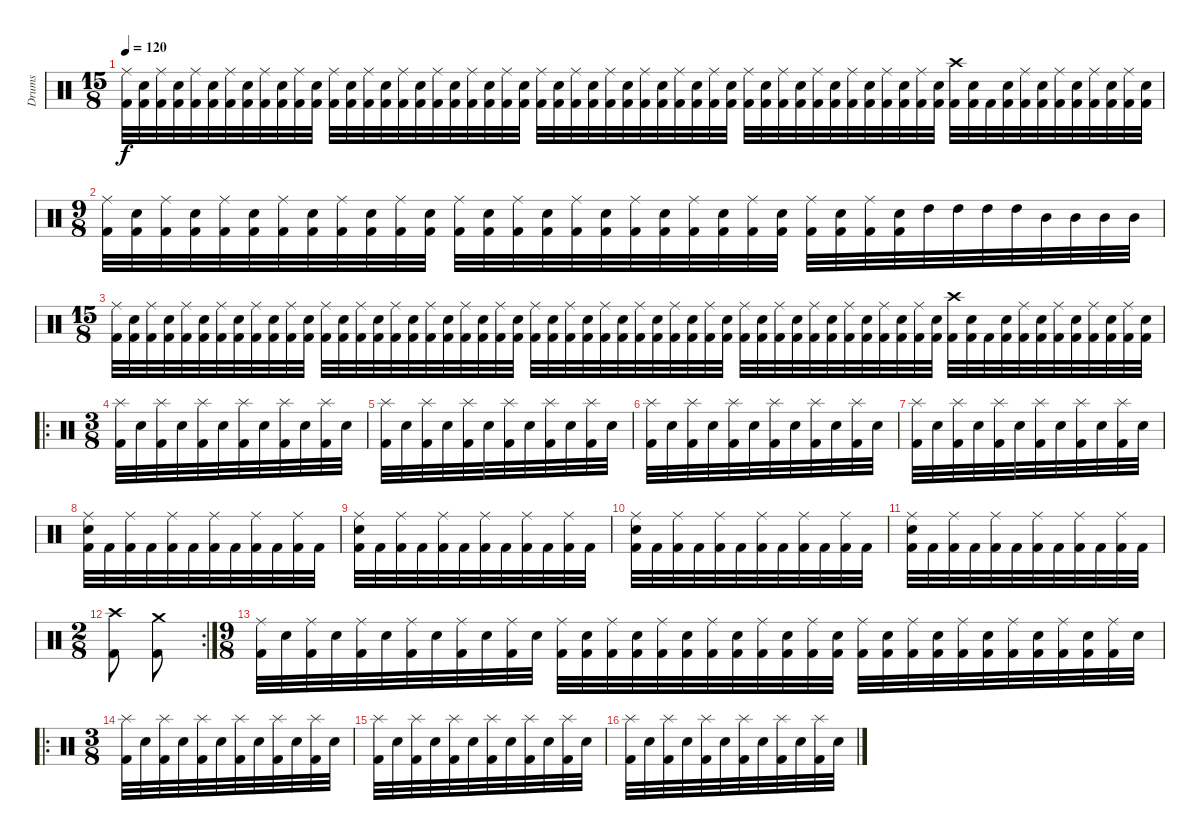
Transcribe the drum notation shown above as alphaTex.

\track ("Drums" "Drums") {instrument percussion}
\staff {score}
\articulation defaults
\ts (15 8)
\tempo 120
\clef neutral
\ks c
("Ride (middle)" "Kick (hit) 2").32{dy f} ("Snare (hit) 2" "Kick (hit) 2").32 ("Ride (middle)" "Kick (hit) 2").32 ("Snare (hit) 2" "Kick (hit) 2").32 ("Ride (middle)" "Kick (hit) 2").32 ("Snare (hit) 2" "Kick (hit) 2").32 ("Ride (middle)" "Kick (hit) 2").32 ("Snare (hit) 2" "Kick (hit) 2").32 ("Ride (middle)" "Kick (hit) 2").32 ("Snare (hit) 2" "Kick (hit) 2").32 ("Ride (middle)" "Kick (hit) 2").32 ("Snare (hit) 2" "Kick (hit) 2").32 ("Ride (middle)" "Kick (hit) 2").32 ("Snare (hit) 2" "Kick (hit) 2").32 ("Ride (middle)" "Kick (hit) 2").32 ("Snare (hit) 2" "Kick (hit) 2").32 ("Ride (middle)" "Kick (hit) 2").32 ("Snare (hit) 2" "Kick (hit) 2").32 ("Ride (middle)" "Kick (hit) 2").32 ("Snare (hit) 2" "Kick (hit) 2").32 ("Ride (middle)" "Kick (hit) 2").32 ("Snare (hit) 2" "Kick (hit) 2").32 ("Ride (middle)" "Kick (hit) 2").32 ("Snare (hit) 2" "Kick (hit) 2").32 ("Ride (middle)" "Kick (hit) 2").32 ("Snare (hit) 2" "Kick (hit) 2").32 ("Ride (middle)" "Kick (hit) 2").32 ("Snare (hit) 2" "Kick (hit) 2").32 ("Ride (middle)" "Kick (hit) 2").32 ("Snare (hit) 2" "Kick (hit) 2").32 ("Ride (middle)" "Kick (hit) 2").32 ("Snare (hit) 2" "Kick (hit) 2").32 ("Ride (middle)" "Kick (hit) 2").32 ("Snare (hit) 2" "Kick (hit) 2").32 ("Ride (middle)" "Kick (hit) 2").32 ("Snare (hit) 2" "Kick (hit) 2").32 ("Ride (middle)" "Kick (hit) 2").32 ("Snare (hit) 2" "Kick (hit) 2").32 ("Ride (middle)" "Kick (hit) 2").32 ("Snare (hit) 2" "Kick (hit) 2").32 ("Ride (middle)" "Kick (hit) 2").32 ("Snare (hit) 2" "Kick (hit) 2").32 ("Ride (middle)" "Kick (hit) 2").32 ("Snare (hit) 2" "Kick (hit) 2").32 ("Ride (middle)" "Kick (hit) 2").32 ("Snare (hit) 2" "Kick (hit) 2").32 ("Ride (middle)" "Kick (hit) 2").32 ("Snare (hit) 2" "Kick (hit) 2").32 ("Crash high (hit)" "Kick (hit) 2").32 ("Snare (hit) 2" "Kick (hit) 2").32 "Kick (hit) 2".32 ("Snare (hit) 2" "Kick (hit) 2").32 ("Ride (middle)" "Kick (hit) 2").32 ("Snare (hit) 2" "Kick (hit) 2").32 ("Ride (middle)" "Kick (hit) 2").32 ("Snare (hit) 2" "Kick (hit) 2").32 ("Ride (middle)" "Kick (hit) 2").32 ("Snare (hit) 2" "Kick (hit) 2").32 ("Ride (middle)" "Kick (hit) 2").32 ("Snare (hit) 2" "Kick (hit) 2").32 |
\ts (9 8)
("Ride (middle)" "Kick (hit) 2").32 ("Snare (hit) 2" "Kick (hit) 2").32 ("Ride (middle)" "Kick (hit) 2").32 ("Snare (hit) 2" "Kick (hit) 2").32 ("Ride (middle)" "Kick (hit) 2").32 ("Snare (hit) 2" "Kick (hit) 2").32 ("Ride (middle)" "Kick (hit) 2").32 ("Snare (hit) 2" "Kick (hit) 2").32 ("Ride (middle)" "Kick (hit) 2").32 ("Snare (hit) 2" "Kick (hit) 2").32 ("Ride (middle)" "Kick (hit) 2").32 ("Snare (hit) 2" "Kick (hit) 2").32 ("Ride (middle)" "Kick (hit) 2").32 ("Snare (hit) 2" "Kick (hit) 2").32 ("Ride (middle)" "Kick (hit) 2").32 ("Snare (hit) 2" "Kick (hit) 2").32 ("Ride (middle)" "Kick (hit) 2").32 ("Snare (hit) 2" "Kick (hit) 2").32 ("Ride (middle)" "Kick (hit) 2").32 ("Snare (hit) 2" "Kick (hit) 2").32 ("Ride (middle)" "Kick (hit) 2").32 ("Snare (hit) 2" "Kick (hit) 2").32 ("Ride (middle)" "Kick (hit) 2").32 ("Snare (hit) 2" "Kick (hit) 2").32 ("Ride (middle)" "Kick (hit) 2").32 ("Snare (hit) 2" "Kick (hit) 2").32 ("Ride (middle)" "Kick (hit) 2").32 ("Snare (hit) 2" "Kick (hit) 2").32 "High Tom (hit)".32 "High Tom (hit)".32 "High Tom (hit)".32 "High Tom (hit)".32 "Mid Tom (hit)".32 "Mid Tom (hit)".32 "Mid Tom (hit)".32 "Mid Tom (hit)".32 |
\ts (15 8)
("Ride (middle)" "Kick (hit) 2").32 ("Snare (hit) 2" "Kick (hit) 2").32 ("Ride (middle)" "Kick (hit) 2").32 ("Snare (hit) 2" "Kick (hit) 2").32 ("Ride (middle)" "Kick (hit) 2").32 ("Snare (hit) 2" "Kick (hit) 2").32 ("Ride (middle)" "Kick (hit) 2").32 ("Snare (hit) 2" "Kick (hit) 2").32 ("Ride (middle)" "Kick (hit) 2").32 ("Snare (hit) 2" "Kick (hit) 2").32 ("Ride (middle)" "Kick (hit) 2").32 ("Snare (hit) 2" "Kick (hit) 2").32 ("Ride (middle)" "Kick (hit) 2").32 ("Snare (hit) 2" "Kick (hit) 2").32 ("Ride (middle)" "Kick (hit) 2").32 ("Snare (hit) 2" "Kick (hit) 2").32 ("Ride (middle)" "Kick (hit) 2").32 ("Snare (hit) 2" "Kick (hit) 2").32 ("Ride (middle)" "Kick (hit) 2").32 ("Snare (hit) 2" "Kick (hit) 2").32 ("Ride (middle)" "Kick (hit) 2").32 ("Snare (hit) 2" "Kick (hit) 2").32 ("Ride (middle)" "Kick (hit) 2").32 ("Snare (hit) 2" "Kick (hit) 2").32 ("Ride (middle)" "Kick (hit) 2").32 ("Snare (hit) 2" "Kick (hit) 2").32 ("Ride (middle)" "Kick (hit) 2").32 ("Snare (hit) 2" "Kick (hit) 2").32 ("Ride (middle)" "Kick (hit) 2").32 ("Snare (hit) 2" "Kick (hit) 2").32 ("Ride (middle)" "Kick (hit) 2").32 ("Snare (hit) 2" "Kick (hit) 2").32 ("Ride (middle)" "Kick (hit) 2").32 ("Snare (hit) 2" "Kick (hit) 2").32 ("Ride (middle)" "Kick (hit) 2").32 ("Snare (hit) 2" "Kick (hit) 2").32 ("Ride (middle)" "Kick (hit) 2").32 ("Snare (hit) 2" "Kick (hit) 2").32 ("Ride (middle)" "Kick (hit) 2").32 ("Snare (hit) 2" "Kick (hit) 2").32 ("Ride (middle)" "Kick (hit) 2").32 ("Snare (hit) 2" "Kick (hit) 2").32 ("Ride (middle)" "Kick (hit) 2").32 ("Snare (hit) 2" "Kick (hit) 2").32 ("Ride (middle)" "Kick (hit) 2").32 ("Snare (hit) 2" "Kick (hit) 2").32 ("Ride (middle)" "Kick (hit) 2").32 ("Snare (hit) 2" "Kick (hit) 2").32 ("Crash high (hit)" "Kick (hit) 2").32 ("Snare (hit) 2" "Kick (hit) 2").32 "Kick (hit) 2".32 ("Snare (hit) 2" "Kick (hit) 2").32 ("Ride (middle)" "Kick (hit) 2").32 ("Snare (hit) 2" "Kick (hit) 2").32 ("Ride (middle)" "Kick (hit) 2").32 ("Snare (hit) 2" "Kick (hit) 2").32 ("Ride (middle)" "Kick (hit) 2").32 ("Snare (hit) 2" "Kick (hit) 2").32 ("Ride (middle)" "Kick (hit) 2").32 ("Snare (hit) 2" "Kick (hit) 2").32 |
\ro
\ts (3 8)
("Splash (hit)" "Kick (hit) 2").32 "Snare (hit) 2".32 ("Splash (hit)" "Kick (hit) 2").32 "Snare (hit) 2".32 ("Splash (hit)" "Kick (hit) 2").32 "Snare (hit) 2".32 ("Splash (hit)" "Kick (hit) 2").32 "Snare (hit) 2".32 ("Splash (hit)" "Kick (hit) 2").32 "Snare (hit) 2".32 ("Splash (hit)" "Kick (hit) 2").32 "Snare (hit) 2".32 |
("Splash (hit)" "Kick (hit) 2").32 "Snare (hit) 2".32 ("Splash (hit)" "Kick (hit) 2").32 "Snare (hit) 2".32 ("Splash (hit)" "Kick (hit) 2").32 "Snare (hit) 2".32 ("Splash (hit)" "Kick (hit) 2").32 "Snare (hit) 2".32 ("Splash (hit)" "Kick (hit) 2").32 "Snare (hit) 2".32 ("Splash (hit)" "Kick (hit) 2").32 "Snare (hit) 2".32 |
("Splash (hit)" "Kick (hit) 2").32 "Snare (hit) 2".32 ("Splash (hit)" "Kick (hit) 2").32 "Snare (hit) 2".32 ("Splash (hit)" "Kick (hit) 2").32 "Snare (hit) 2".32 ("Splash (hit)" "Kick (hit) 2").32 "Snare (hit) 2".32 ("Splash (hit)" "Kick (hit) 2").32 "Snare (hit) 2".32 ("Splash (hit)" "Kick (hit) 2").32 "Snare (hit) 2".32 |
("Splash (hit)" "Kick (hit) 2").32 "Snare (hit) 2".32 ("Splash (hit)" "Kick (hit) 2").32 "Snare (hit) 2".32 ("Splash (hit)" "Kick (hit) 2").32 "Snare (hit) 2".32 ("Splash (hit)" "Kick (hit) 2").32 "Snare (hit) 2".32 ("Splash (hit)" "Kick (hit) 2").32 "Snare (hit) 2".32 ("Splash (hit)" "Kick (hit) 2").32 "Snare (hit) 2".32 |
("Ride (middle)" "Snare (hit) 2" "Kick (hit) 2").32 "Kick (hit) 2".32 ("Ride (middle)" "Kick (hit) 2").32 "Kick (hit) 2".32 ("Ride (middle)" "Kick (hit) 2").32 "Kick (hit) 2".32 ("Ride (middle)" "Kick (hit) 2").32 "Kick (hit) 2".32 ("Ride (middle)" "Kick (hit) 2").32 "Kick (hit) 2".32 ("Ride (middle)" "Kick (hit) 2").32 "Kick (hit) 2".32 |
("Ride (middle)" "Snare (hit) 2" "Kick (hit) 2").32 "Kick (hit) 2".32 ("Ride (middle)" "Kick (hit) 2").32 "Kick (hit) 2".32 ("Ride (middle)" "Kick (hit) 2").32 "Kick (hit) 2".32 ("Ride (middle)" "Kick (hit) 2").32 "Kick (hit) 2".32 ("Ride (middle)" "Kick (hit) 2").32 "Kick (hit) 2".32 ("Ride (middle)" "Kick (hit) 2").32 "Kick (hit) 2".32 |
("Ride (middle)" "Snare (hit) 2" "Kick (hit) 2").32 "Kick (hit) 2".32 ("Ride (middle)" "Kick (hit) 2").32 "Kick (hit) 2".32 ("Ride (middle)" "Kick (hit) 2").32 "Kick (hit) 2".32 ("Ride (middle)" "Kick (hit) 2").32 "Kick (hit) 2".32 ("Ride (middle)" "Kick (hit) 2").32 "Kick (hit) 2".32 ("Ride (middle)" "Kick (hit) 2").32 "Kick (hit) 2".32 |
("Ride (middle)" "Snare (hit) 2" "Kick (hit) 2").32 "Kick (hit) 2".32 ("Ride (middle)" "Kick (hit) 2").32 "Kick (hit) 2".32 ("Ride (middle)" "Kick (hit) 2").32 "Kick (hit) 2".32 ("Ride (middle)" "Kick (hit) 2").32 "Kick (hit) 2".32 ("Ride (middle)" "Kick (hit) 2").32 "Kick (hit) 2".32 ("Ride (middle)" "Kick (hit) 2").32 "Kick (hit) 2".32 |
\rc 2
\ts (2 8)
("Crash high (hit)" "Kick (hit) 2").8 ("Crash medium (hit)" "Kick (hit) 2").8 |
\ts (9 8)
("Ride (middle)" "Kick (hit) 2").32 "Snare (hit) 2".32 ("Ride (middle)" "Kick (hit) 2").32 "Snare (hit) 2".32 ("Ride (middle)" "Kick (hit) 2").32 "Snare (hit) 2".32 ("Ride (middle)" "Kick (hit) 2").32 "Snare (hit) 2".32 ("Ride (middle)" "Kick (hit) 2").32 "Snare (hit) 2".32 ("Ride (middle)" "Kick (hit) 2").32 "Snare (hit) 2".32 ("Ride (middle)" "Kick (hit) 2").32 ("Snare (hit) 2" "Kick (hit) 2").32 ("Ride (middle)" "Kick (hit) 2").32 ("Snare (hit) 2" "Kick (hit) 2").32 ("Ride (middle)" "Kick (hit) 2").32 ("Snare (hit) 2" "Kick (hit) 2").32 ("Ride (middle)" "Kick (hit) 2").32 ("Snare (hit) 2" "Kick (hit) 2").32 ("Ride (middle)" "Kick (hit) 2").32 ("Snare (hit) 2" "Kick (hit) 2").32 ("Ride (middle)" "Kick (hit) 2").32 ("Snare (hit) 2" "Kick (hit) 2").32 ("Ride (middle)" "Kick (hit) 2").32 ("Snare (hit) 2" "Kick (hit) 2").32 ("Ride (middle)" "Kick (hit) 2").32 ("Snare (hit) 2" "Kick (hit) 2").32 ("Ride (middle)" "Kick (hit) 2").32 ("Snare (hit) 2" "Kick (hit) 2").32 ("Ride (middle)" "Kick (hit) 2").32 ("Snare (hit) 2" "Kick (hit) 2").32 ("Ride (middle)" "Kick (hit) 2").32 ("Snare (hit) 2" "Kick (hit) 2").32 ("Ride (middle)" "Kick (hit) 2").32 "Snare (hit) 2".32 |
\ro
\ts (3 8)
("Splash (hit)" "Kick (hit) 2").32 "Snare (hit) 2".32 ("Splash (hit)" "Kick (hit) 2").32 "Snare (hit) 2".32 ("Splash (hit)" "Kick (hit) 2").32 "Snare (hit) 2".32 ("Splash (hit)" "Kick (hit) 2").32 "Snare (hit) 2".32 ("Splash (hit)" "Kick (hit) 2").32 "Snare (hit) 2".32 ("Splash (hit)" "Kick (hit) 2").32 "Snare (hit) 2".32 |
("Splash (hit)" "Kick (hit) 2").32 "Snare (hit) 2".32 ("Splash (hit)" "Kick (hit) 2").32 "Snare (hit) 2".32 ("Splash (hit)" "Kick (hit) 2").32 "Snare (hit) 2".32 ("Splash (hit)" "Kick (hit) 2").32 "Snare (hit) 2".32 ("Splash (hit)" "Kick (hit) 2").32 "Snare (hit) 2".32 ("Splash (hit)" "Kick (hit) 2").32 "Snare (hit) 2".32 |
("Splash (hit)" "Kick (hit) 2").32 "Snare (hit) 2".32 ("Splash (hit)" "Kick (hit) 2").32 "Snare (hit) 2".32 ("Splash (hit)" "Kick (hit) 2").32 "Snare (hit) 2".32 ("Splash (hit)" "Kick (hit) 2").32 "Snare (hit) 2".32 ("Splash (hit)" "Kick (hit) 2").32 "Snare (hit) 2".32 ("Splash (hit)" "Kick (hit) 2").32 "Snare (hit) 2".32
